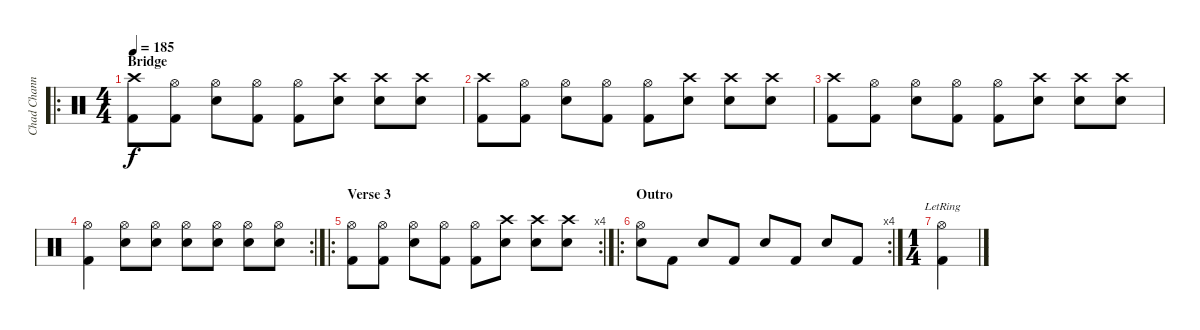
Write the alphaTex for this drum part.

\track ("Chad Channing" "Chad Chann") {instrument percussion}
\staff {score}
\articulation defaults
\ro
\ts (4 4)
\section ("" "Bridge")
\tempo 185
\clef neutral
\ks c
("Crash high (hit)" "Kick (hit) 2").8{dy f} ("Hi-Hat (open)" "Kick (hit) 2").8 ("Hi-Hat (open)" "Electric Snare (hit)").8 ("Hi-Hat (open)" "Kick (hit) 2").8 ("Hi-Hat (open)" "Kick (hit) 2").8 ("Crash high (hit)" "Electric Snare (hit)").8 ("Crash high (hit)" "Electric Snare (hit)").8 ("Crash high (hit)" "Electric Snare (hit)").8 |
("Crash high (hit)" "Kick (hit) 2").8 ("Hi-Hat (open)" "Kick (hit) 2").8 ("Hi-Hat (open)" "Electric Snare (hit)").8 ("Hi-Hat (open)" "Kick (hit) 2").8 ("Hi-Hat (open)" "Kick (hit) 2").8 ("Crash high (hit)" "Electric Snare (hit)").8 ("Crash high (hit)" "Electric Snare (hit)").8 ("Crash high (hit)" "Electric Snare (hit)").8 |
("Crash high (hit)" "Kick (hit) 2").8 ("Hi-Hat (open)" "Kick (hit) 2").8 ("Hi-Hat (open)" "Electric Snare (hit)").8 ("Hi-Hat (open)" "Kick (hit) 2").8 ("Hi-Hat (open)" "Kick (hit) 2").8 ("Crash high (hit)" "Electric Snare (hit)").8 ("Crash high (hit)" "Electric Snare (hit)").8 ("Crash high (hit)" "Electric Snare (hit)").8 |
\rc 2
("Hi-Hat (open)" "Kick (hit) 2").4 ("Hi-Hat (open)" "Electric Snare (hit)").8 ("Hi-Hat (open)" "Electric Snare (hit)").8 ("Hi-Hat (open)" "Electric Snare (hit)").8 ("Hi-Hat (open)" "Electric Snare (hit)").8 ("Hi-Hat (open)" "Electric Snare (hit)").8 ("Hi-Hat (open)" "Electric Snare (hit)").8 |
\ro
\rc 4
\section ("" "Verse 3")
("Hi-Hat (open)" "Kick (hit) 2").8 ("Hi-Hat (open)" "Kick (hit) 2").8 ("Hi-Hat (open)" "Electric Snare (hit)").8 ("Hi-Hat (open)" "Kick (hit) 2").8 ("Hi-Hat (open)" "Kick (hit) 2").8 ("Crash high (hit)" "Electric Snare (hit)").8 ("Crash high (hit)" "Electric Snare (hit)").8 ("Crash high (hit)" "Electric Snare (hit)").8 |
\ro
\rc 4
\section ("" "Outro")
("Hi-Hat (open)" "Electric Snare (hit)").8 "Kick (hit) 2".8 "Electric Snare (hit)".8 "Kick (hit) 2".8 "Electric Snare (hit)".8 "Kick (hit) 2".8 "Electric Snare (hit)".8 "Kick (hit) 2".8 |
\ts (1 4)
("Hi-Hat (open)"{lr} "Kick (hit) 2"{lr}).4
